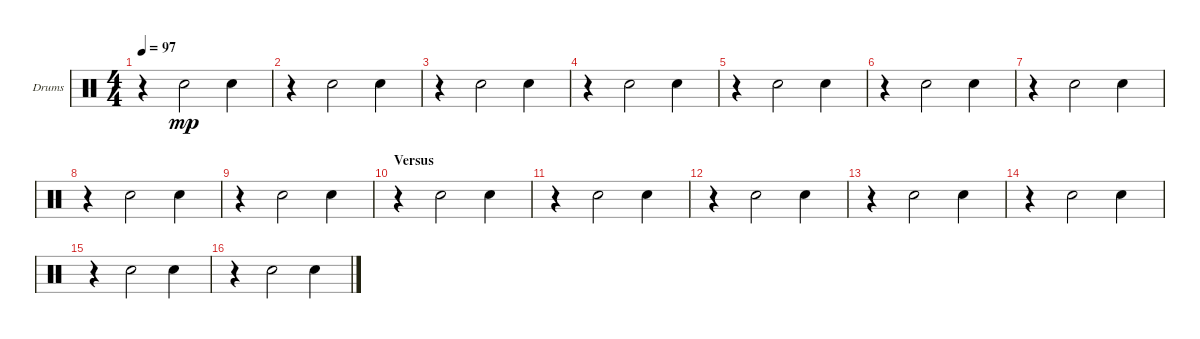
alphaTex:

\bracketExtendMode groupsimilarinstruments
\firstSystemTrackNameOrientation horizontal
\otherSystemsTrackNameOrientation horizontal
\track ("Snare" "Drums") {instrument percussion}
\staff {score}
\articulation defaults
\ts (4 4)
\tempo 97
\clef neutral
\ks c
r.4{dy mp} "Snare (hit) 2".2 "Snare (hit) 2".4 |
r.4 "Snare (hit) 2".2 "Snare (hit) 2".4 |
r.4 "Snare (hit) 2".2 "Snare (hit) 2".4 |
r.4 "Snare (hit) 2".2 "Snare (hit) 2".4 |
r.4 "Snare (hit) 2".2 "Snare (hit) 2".4 |
r.4 "Snare (hit) 2".2 "Snare (hit) 2".4 |
r.4 "Snare (hit) 2".2 "Snare (hit) 2".4 |
r.4 "Snare (hit) 2".2 "Snare (hit) 2".4 |
r.4 "Snare (hit) 2".2 "Snare (hit) 2".4 |
\section ("" "Versus")
r.4 "Snare (hit) 2".2 "Snare (hit) 2".4 |
r.4 "Snare (hit) 2".2 "Snare (hit) 2".4 |
r.4 "Snare (hit) 2".2 "Snare (hit) 2".4 |
r.4 "Snare (hit) 2".2 "Snare (hit) 2".4 |
r.4 "Snare (hit) 2".2 "Snare (hit) 2".4 |
r.4 "Snare (hit) 2".2 "Snare (hit) 2".4 |
r.4 "Snare (hit) 2".2 "Snare (hit) 2".4
